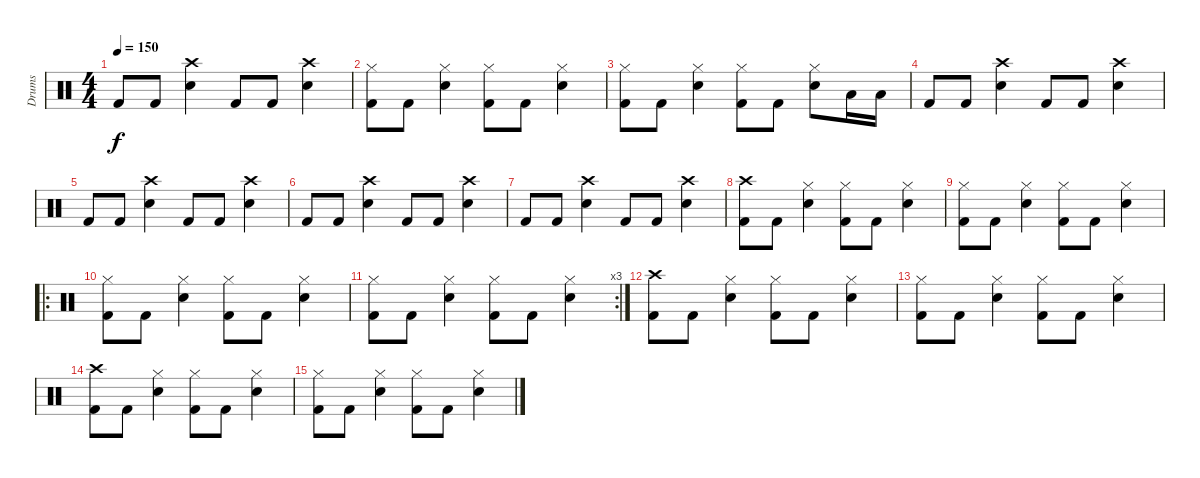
\track ("Drums" "Drums") {instrument percussion}
\staff {score}
\articulation defaults
\ts (4 4)
\tempo 150
\clef neutral
\ks c "Kick (hit) 2".8{dy f} "Kick (hit) 2".8
("Crash high (hit)" "Electric Snare (hit)").4 "Kick (hit) 2".8 "Kick (hit) 2".8 ("Crash high (hit)" "Electric Snare (hit)").4 |
("Hi-Hat (closed)" "Kick (hit) 2").8 "Kick (hit) 2".8 ("Hi-Hat (closed)" "Electric Snare (hit)").4 ("Hi-Hat (closed)" "Kick (hit) 2").8 "Kick (hit) 2".8 ("Hi-Hat (closed)" "Electric Snare (hit)").4 |
("Hi-Hat (closed)" "Kick (hit) 2").8 "Kick (hit) 2".8 ("Hi-Hat (closed)" "Electric Snare (hit)").4 ("Hi-Hat (closed)" "Kick (hit) 2").8 "Kick (hit) 2".8 ("Hi-Hat (closed)" "Electric Snare (hit)").8 "Low Floor Tom (hit)".16 "Low Floor Tom (hit)".16 |
"Kick (hit) 2".8 "Kick (hit) 2".8 ("Crash high (hit)" "Electric Snare (hit)").4 "Kick (hit) 2".8 "Kick (hit) 2".8 ("Crash high (hit)" "Electric Snare (hit)").4 |
"Kick (hit) 2".8 "Kick (hit) 2".8 ("Crash high (hit)" "Electric Snare (hit)").4 "Kick (hit) 2".8 "Kick (hit) 2".8 ("Crash high (hit)" "Electric Snare (hit)").4 |
"Kick (hit) 2".8 "Kick (hit) 2".8 ("Crash high (hit)" "Electric Snare (hit)").4 "Kick (hit) 2".8 "Kick (hit) 2".8 ("Crash high (hit)" "Electric Snare (hit)").4 |
"Kick (hit) 2".8 "Kick (hit) 2".8 ("Crash high (hit)" "Electric Snare (hit)").4 "Kick (hit) 2".8 "Kick (hit) 2".8 ("Crash high (hit)" "Electric Snare (hit)").4 |
("Crash high (hit)" "Kick (hit) 2").8 "Kick (hit) 2".8 ("Hi-Hat (closed)" "Electric Snare (hit)").4 ("Hi-Hat (closed)" "Kick (hit) 2").8 "Kick (hit) 2".8 ("Hi-Hat (closed)" "Electric Snare (hit)").4 |
("Hi-Hat (closed)" "Kick (hit) 2").8 "Kick (hit) 2".8 ("Hi-Hat (closed)" "Electric Snare (hit)").4 ("Hi-Hat (closed)" "Kick (hit) 2").8 "Kick (hit) 2".8 ("Hi-Hat (closed)" "Electric Snare (hit)").4 |
\ro
("Hi-Hat (closed)" "Kick (hit) 2").8 "Kick (hit) 2".8 ("Hi-Hat (closed)" "Electric Snare (hit)").4 ("Hi-Hat (closed)" "Kick (hit) 2").8 "Kick (hit) 2".8 ("Hi-Hat (closed)" "Electric Snare (hit)").4 |
\rc 3
("Hi-Hat (closed)" "Kick (hit) 2").8 "Kick (hit) 2".8 ("Hi-Hat (closed)" "Electric Snare (hit)").4 ("Hi-Hat (closed)" "Kick (hit) 2").8 "Kick (hit) 2".8 ("Hi-Hat (closed)" "Electric Snare (hit)").4 |
("Crash high (hit)" "Kick (hit) 2").8 "Kick (hit) 2".8 ("Hi-Hat (closed)" "Electric Snare (hit)").4 ("Hi-Hat (closed)" "Kick (hit) 2").8 "Kick (hit) 2".8 ("Hi-Hat (closed)" "Electric Snare (hit)").4 |
("Hi-Hat (closed)" "Kick (hit) 2").8 "Kick (hit) 2".8 ("Hi-Hat (closed)" "Electric Snare (hit)").4 ("Hi-Hat (closed)" "Kick (hit) 2").8 "Kick (hit) 2".8 ("Hi-Hat (closed)" "Electric Snare (hit)").4 |
("Crash high (hit)" "Kick (hit) 2").8 "Kick (hit) 2".8 ("Hi-Hat (closed)" "Electric Snare (hit)").4 ("Hi-Hat (closed)" "Kick (hit) 2").8 "Kick (hit) 2".8 ("Hi-Hat (closed)" "Electric Snare (hit)").4 |
("Hi-Hat (closed)" "Kick (hit) 2").8 "Kick (hit) 2".8 ("Hi-Hat (closed)" "Electric Snare (hit)").4 ("Hi-Hat (closed)" "Kick (hit) 2").8 "Kick (hit) 2".8 ("Hi-Hat (closed)" "Electric Snare (hit)").4
